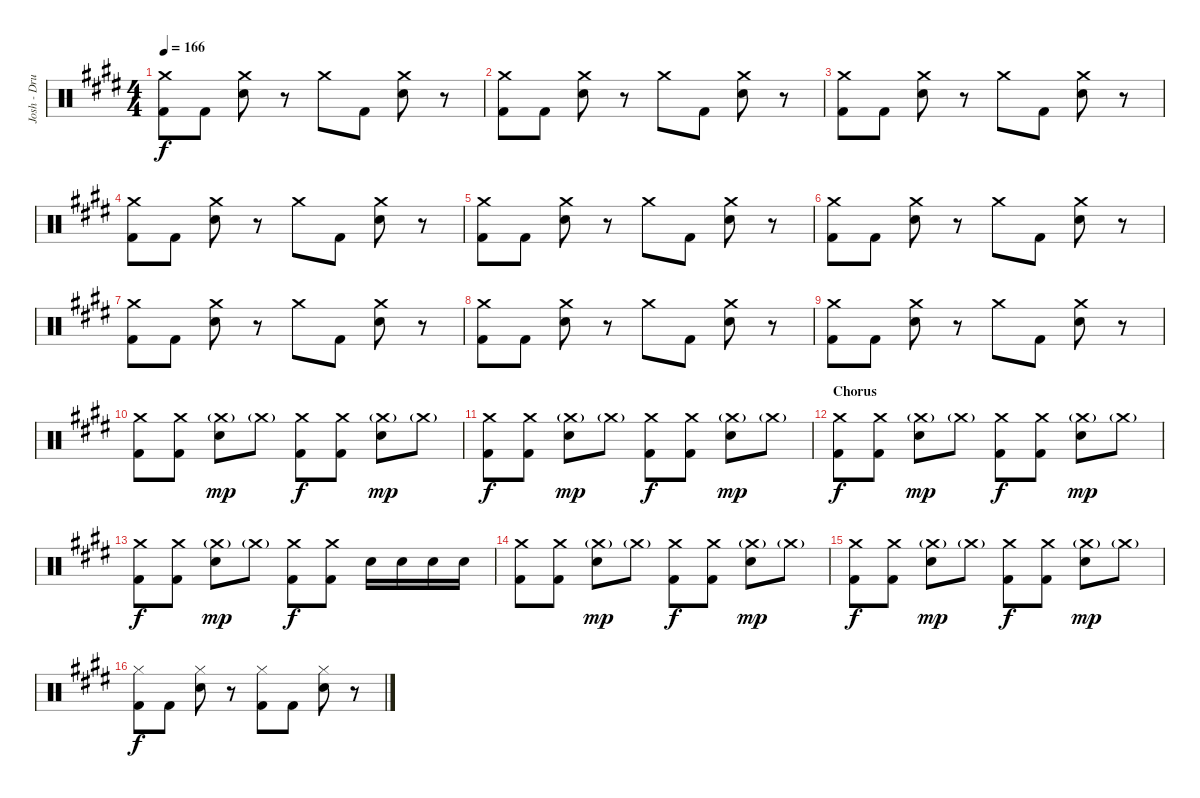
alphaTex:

\track ("Josh - Drums" "Josh - Dru") {instrument percussion}
\staff {score}
\articulation defaults
\ts (4 4)
\tempo 166
\clef neutral
\ks e
("Crash medium (hit)" "Kick (hit) 2").8{dy f} "Kick (hit) 2".8 ("Crash medium (hit)" "Electric Snare (hit)").8 r.8 "Crash medium (hit)".8 "Kick (hit) 2".8 ("Crash medium (hit)" "Electric Snare (hit)").8 r.8 |
("Crash medium (hit)" "Kick (hit) 2").8 "Kick (hit) 2".8 ("Crash medium (hit)" "Electric Snare (hit)").8 r.8 "Crash medium (hit)".8 "Kick (hit) 2".8 ("Crash medium (hit)" "Electric Snare (hit)").8 r.8 |
("Crash medium (hit)" "Kick (hit) 2").8 "Kick (hit) 2".8 ("Crash medium (hit)" "Electric Snare (hit)").8 r.8 "Crash medium (hit)".8 "Kick (hit) 2".8 ("Crash medium (hit)" "Electric Snare (hit)").8 r.8 |
("Crash medium (hit)" "Kick (hit) 2").8 "Kick (hit) 2".8 ("Crash medium (hit)" "Electric Snare (hit)").8 r.8 "Crash medium (hit)".8 "Kick (hit) 2".8 ("Crash medium (hit)" "Electric Snare (hit)").8 r.8 |
("Crash medium (hit)" "Kick (hit) 2").8 "Kick (hit) 2".8 ("Crash medium (hit)" "Electric Snare (hit)").8 r.8 "Crash medium (hit)".8 "Kick (hit) 2".8 ("Crash medium (hit)" "Electric Snare (hit)").8 r.8 |
("Crash medium (hit)" "Kick (hit) 2").8 "Kick (hit) 2".8 ("Crash medium (hit)" "Electric Snare (hit)").8 r.8 "Crash medium (hit)".8 "Kick (hit) 2".8 ("Crash medium (hit)" "Electric Snare (hit)").8 r.8 |
("Crash medium (hit)" "Kick (hit) 2").8 "Kick (hit) 2".8 ("Crash medium (hit)" "Electric Snare (hit)").8 r.8 "Crash medium (hit)".8 "Kick (hit) 2".8 ("Crash medium (hit)" "Electric Snare (hit)").8 r.8 |
("Crash medium (hit)" "Kick (hit) 2").8 "Kick (hit) 2".8 ("Crash medium (hit)" "Electric Snare (hit)").8 r.8 "Crash medium (hit)".8 "Kick (hit) 2".8 ("Crash medium (hit)" "Electric Snare (hit)").8 r.8 |
("Crash medium (hit)" "Kick (hit) 2").8 "Kick (hit) 2".8 ("Crash medium (hit)" "Electric Snare (hit)").8 r.8 "Crash medium (hit)".8 "Kick (hit) 2".8 ("Crash medium (hit)" "Electric Snare (hit)").8 r.8 |
("Crash medium (hit)" "Kick (hit) 2").8 ("Crash medium (hit)" "Kick (hit) 2").8 ("Crash medium (hit)"{g} "Electric Snare (hit)").8{dy mp} "Crash medium (hit)"{g}.8 ("Crash medium (hit)" "Kick (hit) 2").8{dy f} ("Crash medium (hit)" "Kick (hit) 2").8 ("Crash medium (hit)"{g} "Electric Snare (hit)").8{dy mp} "Crash medium (hit)"{g}.8 |
("Crash medium (hit)" "Kick (hit) 2").8{dy f} ("Crash medium (hit)" "Kick (hit) 2").8 ("Crash medium (hit)"{g} "Electric Snare (hit)").8{dy mp} "Crash medium (hit)"{g}.8 ("Crash medium (hit)" "Kick (hit) 2").8{dy f} ("Crash medium (hit)" "Kick (hit) 2").8 ("Crash medium (hit)"{g} "Electric Snare (hit)").8{dy mp} "Crash medium (hit)"{g}.8 |
\section ("" "Chorus")
("Crash medium (hit)" "Kick (hit) 2").8{dy f} ("Crash medium (hit)" "Kick (hit) 2").8 ("Crash medium (hit)"{g} "Electric Snare (hit)").8{dy mp} "Crash medium (hit)"{g}.8 ("Crash medium (hit)" "Kick (hit) 2").8{dy f} ("Crash medium (hit)" "Kick (hit) 2").8 ("Crash medium (hit)"{g} "Electric Snare (hit)").8{dy mp} "Crash medium (hit)"{g}.8 |
("Crash medium (hit)" "Kick (hit) 2").8{dy f} ("Crash medium (hit)" "Kick (hit) 2").8 ("Crash medium (hit)"{g} "Electric Snare (hit)").8{dy mp} "Crash medium (hit)"{g}.8 ("Crash medium (hit)" "Kick (hit) 2").8{dy f} ("Crash medium (hit)" "Kick (hit) 2").8 "Electric Snare (hit)".16 "Electric Snare (hit)".16 "Electric Snare (hit)".16 "Electric Snare (hit)".16 |
("Crash medium (hit)" "Kick (hit) 2").8 ("Crash medium (hit)" "Kick (hit) 2").8 ("Crash medium (hit)"{g} "Electric Snare (hit)").8{dy mp} "Crash medium (hit)"{g}.8 ("Crash medium (hit)" "Kick (hit) 2").8{dy f} ("Crash medium (hit)" "Kick (hit) 2").8 ("Crash medium (hit)"{g} "Electric Snare (hit)").8{dy mp} "Crash medium (hit)"{g}.8 |
("Crash medium (hit)" "Kick (hit) 2").8{dy f} ("Crash medium (hit)" "Kick (hit) 2").8 ("Crash medium (hit)"{g} "Electric Snare (hit)").8{dy mp} "Crash medium (hit)"{g}.8 ("Crash medium (hit)" "Kick (hit) 2").8{dy f} ("Crash medium (hit)" "Kick (hit) 2").8 ("Crash medium (hit)"{g} "Electric Snare (hit)").8{dy mp} "Crash medium (hit)"{g}.8 |
("Hi-Hat (closed)" "Kick (hit) 2").8{dy f} "Kick (hit) 2".8 ("Hi-Hat (closed)" "Electric Snare (hit)").8 r.8 ("Hi-Hat (closed)" "Kick (hit) 2").8 "Kick (hit) 2".8 ("Hi-Hat (closed)" "Electric Snare (hit)").8 r.8
